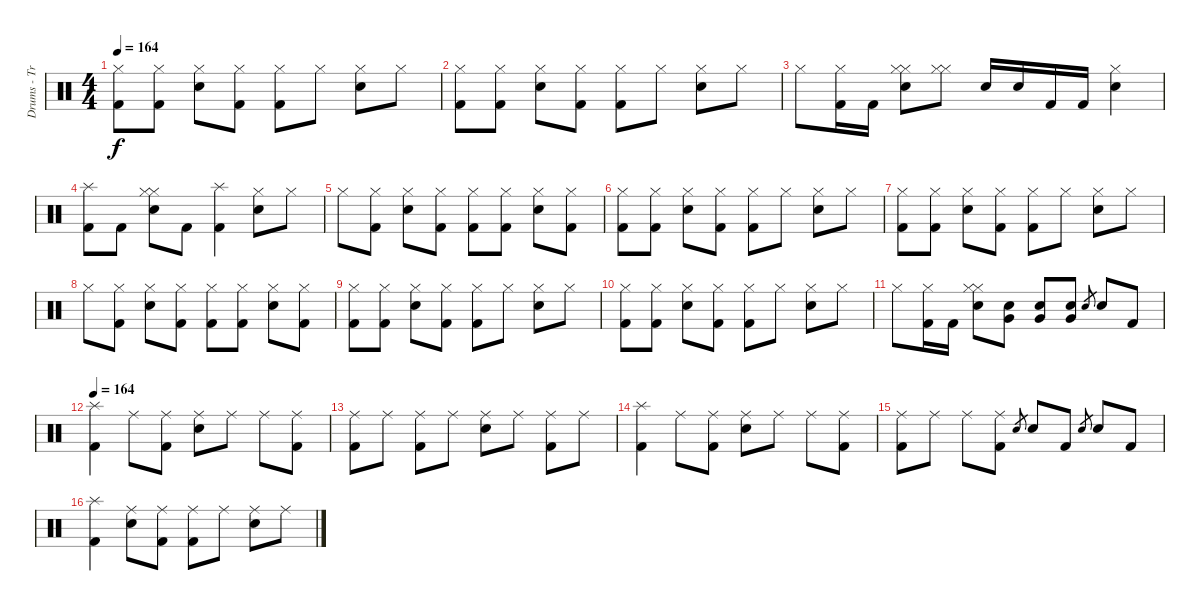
\track ("Drums - Travis Barker" "Drums - Tr") {instrument percussion}
\staff {score}
\articulation defaults
\ts (4 4)
\tempo 164
\clef neutral
\ks c
("Hi-Hat (closed)" "Kick (hit) 2").8{dy f} ("Hi-Hat (closed)" "Kick (hit) 2").8 ("Hi-Hat (closed)" "Electric Snare (hit)").8 ("Hi-Hat (closed)" "Kick (hit) 2").8 ("Hi-Hat (closed)" "Kick (hit) 2").8 "Hi-Hat (closed)".8 ("Hi-Hat (closed)" "Electric Snare (hit)").8 "Hi-Hat (closed)".8 |
("Hi-Hat (closed)" "Kick (hit) 2").8 ("Hi-Hat (closed)" "Kick (hit) 2").8 ("Hi-Hat (closed)" "Electric Snare (hit)").8 ("Hi-Hat (closed)" "Kick (hit) 2").8 ("Hi-Hat (closed)" "Kick (hit) 2").8 "Hi-Hat (closed)".8 ("Hi-Hat (closed)" "Electric Snare (hit)").8 "Hi-Hat (closed)".8 |
"Hi-Hat (closed)".8 ("Hi-Hat (closed)" "Kick (hit) 2").16 "Kick (hit) 2".16 ("Hi-Hat (closed)" "Hi-Hat (closed)" "Electric Snare (hit)").8 ("Hi-Hat (closed)" "Hi-Hat (closed)").8 "Electric Snare (hit)".16 "Electric Snare (hit)".16 "Kick (hit) 2".16 "Kick (hit) 2".16 ("Hi-Hat (closed)" "Electric Snare (hit)").4 |
("Splash (hit)" "Kick (hit) 2").8 "Kick (hit) 2".8 ("Hi-Hat (closed)" "Hi-Hat (closed)" "Electric Snare (hit)").8 "Kick (hit) 2".8 ("Splash (hit)" "Kick (hit) 2").4 ("Hi-Hat (closed)" "Electric Snare (hit)").8 "Hi-Hat (closed)".8 |
"Hi-Hat (closed)".8 ("Hi-Hat (closed)" "Kick (hit) 2").8 ("Hi-Hat (closed)" "Electric Snare (hit)").8 ("Hi-Hat (closed)" "Kick (hit) 2").8 ("Hi-Hat (closed)" "Kick (hit) 2").8 ("Hi-Hat (closed)" "Kick (hit) 2").8 ("Hi-Hat (closed)" "Electric Snare (hit)").8 ("Hi-Hat (closed)" "Kick (hit) 2").8 |
("Hi-Hat (closed)" "Kick (hit) 2").8 ("Hi-Hat (closed)" "Kick (hit) 2").8 ("Hi-Hat (closed)" "Electric Snare (hit)").8 ("Hi-Hat (closed)" "Kick (hit) 2").8 ("Hi-Hat (closed)" "Kick (hit) 2").8 "Hi-Hat (closed)".8 ("Hi-Hat (closed)" "Electric Snare (hit)").8 "Hi-Hat (closed)".8 |
("Hi-Hat (closed)" "Kick (hit) 2").8 ("Hi-Hat (closed)" "Kick (hit) 2").8 ("Hi-Hat (closed)" "Electric Snare (hit)").8 ("Hi-Hat (closed)" "Kick (hit) 2").8 ("Hi-Hat (closed)" "Kick (hit) 2").8 "Hi-Hat (closed)".8 ("Hi-Hat (closed)" "Electric Snare (hit)").8 "Hi-Hat (closed)".8 |
"Hi-Hat (closed)".8 ("Hi-Hat (closed)" "Kick (hit) 2").8 ("Hi-Hat (closed)" "Electric Snare (hit)").8 ("Hi-Hat (closed)" "Kick (hit) 2").8 ("Hi-Hat (closed)" "Kick (hit) 2").8 ("Hi-Hat (closed)" "Kick (hit) 2").8 ("Hi-Hat (closed)" "Electric Snare (hit)").8 ("Hi-Hat (closed)" "Kick (hit) 2").8 |
("Hi-Hat (closed)" "Kick (hit) 2").8 ("Hi-Hat (closed)" "Kick (hit) 2").8 ("Hi-Hat (closed)" "Electric Snare (hit)").8 ("Hi-Hat (closed)" "Kick (hit) 2").8 ("Hi-Hat (closed)" "Kick (hit) 2").8 "Hi-Hat (closed)".8 ("Hi-Hat (closed)" "Electric Snare (hit)").8 "Hi-Hat (closed)".8 |
("Hi-Hat (closed)" "Kick (hit) 2").8 ("Hi-Hat (closed)" "Kick (hit) 2").8 ("Hi-Hat (closed)" "Electric Snare (hit)").8 ("Hi-Hat (closed)" "Kick (hit) 2").8 ("Hi-Hat (closed)" "Kick (hit) 2").8 "Hi-Hat (closed)".8 ("Hi-Hat (closed)" "Electric Snare (hit)").8 "Hi-Hat (closed)".8 |
"Hi-Hat (closed)".8 ("Hi-Hat (closed)" "Kick (hit) 2").16 "Kick (hit) 2".16 ("Hi-Hat (closed)" "Hi-Hat (closed)" "Electric Snare (hit)").8 ("Very Low Tom (hit)" "Electric Snare (hit)").8 ("Very Low Tom (hit)" "Electric Snare (hit)").8 ("Very Low Tom (hit)" "Electric Snare (hit)").8 "Electric Snare (hit)".8{gr} "Electric Snare (hit)".8 "Kick (hit) 2".8 |
\tempo 164
("Splash (hit)" "Kick (hit) 2").4 "Ride (middle)".8 ("Ride (middle)" "Kick (hit) 2").8 ("Ride (middle)" "Electric Snare (hit)").8 "Ride (middle)".8 "Ride (middle)".8 ("Ride (middle)" "Kick (hit) 2").8 |
("Ride (middle)" "Kick (hit) 2").8 "Ride (middle)".8 ("Ride (middle)" "Kick (hit) 2").8 "Ride (middle)".8 ("Ride (middle)" "Electric Snare (hit)").8 "Ride (middle)".8 ("Ride (middle)" "Kick (hit) 2").8 "Ride (middle)".8 |
("Splash (hit)" "Kick (hit) 2").4 "Ride (middle)".8 ("Ride (middle)" "Kick (hit) 2").8 ("Ride (middle)" "Electric Snare (hit)").8 "Ride (middle)".8 "Ride (middle)".8 ("Ride (middle)" "Kick (hit) 2").8 |
("Ride (middle)" "Kick (hit) 2").8 "Ride (middle)".8 "Ride (middle)".8 ("Ride (middle)" "Kick (hit) 2").8 "Electric Snare (hit)".8{gr} "Electric Snare (hit)".8 "Kick (hit) 2".8 "Electric Snare (hit)".8{gr} "Electric Snare (hit)".8 "Kick (hit) 2".8 |
("Splash (hit)" "Kick (hit) 2").4 ("Ride (middle)" "Electric Snare (hit)").8 ("Ride (middle)" "Kick (hit) 2").8 ("Ride (middle)" "Kick (hit) 2").8 "Ride (middle)".8 ("Ride (middle)" "Electric Snare (hit)").8 "Ride (middle)".8
